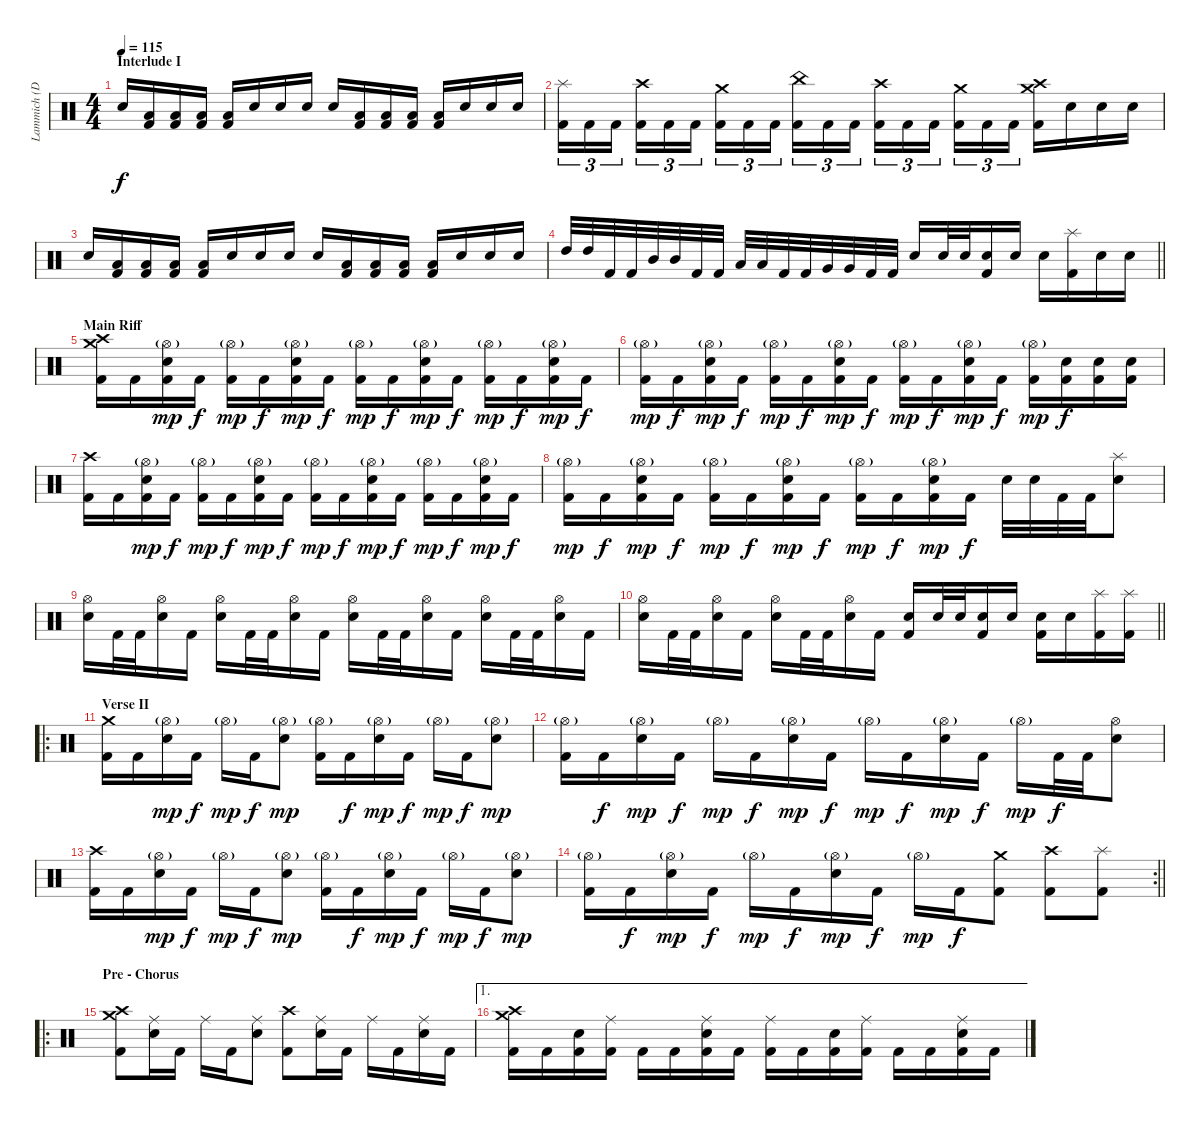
\track ("Lammich (Drums)" "Lammich (D") {instrument percussion}
\staff {score}
\articulation defaults
\ts (4 4)
\section ("" "Interlude I")
\tempo 115
\clef neutral
\ks c "Electric Snare (hit)".16{dy f}
("Low Floor Tom (hit)" "Kick (hit) 2").16 ("Low Floor Tom (hit)" "Kick (hit) 2").16 ("Low Floor Tom (hit)" "Kick (hit) 2").16 ("Low Floor Tom (hit)" "Kick (hit) 2").16 "Electric Snare (hit)".16 "Electric Snare (hit)".16 "Electric Snare (hit)".16 "Electric Snare (hit)".16 ("Low Floor Tom (hit)" "Kick (hit) 2").16 ("Low Floor Tom (hit)" "Kick (hit) 2").16 ("Low Floor Tom (hit)" "Kick (hit) 2").16 ("Low Floor Tom (hit)" "Kick (hit) 2").16 "Electric Snare (hit)".16 "Electric Snare (hit)".16 "Electric Snare (hit)".16 |
("Splash (hit)" "Kick (hit) 2").16{tu (3 2)} "Kick (hit) 2".16{tu (3 2)} "Kick (hit) 2".16{tu (3 2) beam splitsecondary} ("Crash high (hit)" "Kick (hit) 2").16{tu (3 2)} "Kick (hit) 2".16{tu (3 2)} "Kick (hit) 2".16{tu (3 2)} ("Crash medium (hit)" "Kick (hit) 2").16{tu (3 2)} "Kick (hit) 2".16{tu (3 2)} "Kick (hit) 2".16{tu (3 2) beam splitsecondary} ("China (hit)" "Kick (hit) 2").16{tu (3 2)} "Kick (hit) 2".16{tu (3 2)} "Kick (hit) 2".16{tu (3 2)} ("Crash high (hit)" "Kick (hit) 2").16{tu (3 2)} "Kick (hit) 2".16{tu (3 2)} "Kick (hit) 2".16{tu (3 2) beam splitsecondary} ("Crash medium (hit)" "Kick (hit) 2").16{tu (3 2)} "Kick (hit) 2".16{tu (3 2)} "Kick (hit) 2".16{tu (3 2)} ("Crash medium (hit)" "Crash high (hit)" "Kick (hit) 2").16 "Electric Snare (hit)".16 "Electric Snare (hit)".16 "Electric Snare (hit)".16 |
"Electric Snare (hit)".16 ("Low Floor Tom (hit)" "Kick (hit) 2").16 ("Low Floor Tom (hit)" "Kick (hit) 2").16 ("Low Floor Tom (hit)" "Kick (hit) 2").16 ("Low Floor Tom (hit)" "Kick (hit) 2").16 "Electric Snare (hit)".16 "Electric Snare (hit)".16 "Electric Snare (hit)".16 "Electric Snare (hit)".16 ("Low Floor Tom (hit)" "Kick (hit) 2").16 ("Low Floor Tom (hit)" "Kick (hit) 2").16 ("Low Floor Tom (hit)" "Kick (hit) 2").16 ("Low Floor Tom (hit)" "Kick (hit) 2").16 "Electric Snare (hit)".16 "Electric Snare (hit)".16 "Electric Snare (hit)".16 |
\barLineRight lightlight "High Tom (hit)".32 "High Tom (hit)".32 "Kick (hit) 2".32 "Kick (hit) 2".32 "Mid Tom (hit)".32 "Mid Tom (hit)".32 "Kick (hit) 2".32 "Kick (hit) 2".32 "Low Tom (hit)".32 "Low Tom (hit)".32 "Kick (hit) 2".32 "Kick (hit) 2".32 "Very Low Tom (hit)".32 "Very Low Tom (hit)".32 "Kick (hit) 2".32 "Kick (hit) 2".32 "Electric Snare (hit)".16 "Electric Snare (hit)".32 "Electric Snare (hit)".32
("Electric Snare (hit)" "Kick (hit) 2").16 "Electric Snare (hit)".16 "Electric Snare (hit)".16 ("Splash (hit)" "Kick (hit) 2").16 "Electric Snare (hit)".16 "Electric Snare (hit)".16 |
\section ("" "Main Riff")
("Crash medium (hit)" "Crash high (hit)" "Kick (hit) 2").16 "Kick (hit) 2".16 ("Hi-Hat (open)"{g} "Electric Snare (hit)" "Kick (hit) 2").16{dy mp} "Kick (hit) 2".16{dy f} ("Hi-Hat (open)"{g} "Kick (hit) 2").16{dy mp} "Kick (hit) 2".16{dy f} ("Hi-Hat (open)"{g} "Electric Snare (hit)" "Kick (hit) 2").16{dy mp} "Kick (hit) 2".16{dy f} ("Hi-Hat (open)"{g} "Kick (hit) 2").16{dy mp} "Kick (hit) 2".16{dy f} ("Hi-Hat (open)"{g} "Electric Snare (hit)" "Kick (hit) 2").16{dy mp} "Kick (hit) 2".16{dy f} ("Hi-Hat (open)"{g} "Kick (hit) 2").16{dy mp} "Kick (hit) 2".16{dy f} ("Hi-Hat (open)"{g} "Electric Snare (hit)" "Kick (hit) 2").16{dy mp} "Kick (hit) 2".16{dy f} |
("Hi-Hat (open)"{g} "Kick (hit) 2").16{dy mp} "Kick (hit) 2".16{dy f} ("Hi-Hat (open)"{g} "Electric Snare (hit)" "Kick (hit) 2").16{dy mp} "Kick (hit) 2".16{dy f} ("Hi-Hat (open)"{g} "Kick (hit) 2").16{dy mp} "Kick (hit) 2".16{dy f} ("Hi-Hat (open)"{g} "Electric Snare (hit)" "Kick (hit) 2").16{dy mp} "Kick (hit) 2".16{dy f} ("Hi-Hat (open)"{g} "Kick (hit) 2").16{dy mp} "Kick (hit) 2".16{dy f} ("Hi-Hat (open)"{g} "Electric Snare (hit)" "Kick (hit) 2").16{dy mp} "Kick (hit) 2".16{dy f} ("Hi-Hat (open)"{g} "Kick (hit) 2").16{dy mp} ("Electric Snare (hit)" "Kick (hit) 2").16{dy f} ("Electric Snare (hit)" "Kick (hit) 2").16 ("Electric Snare (hit)" "Kick (hit) 2").16 |
("Crash high (hit)" "Kick (hit) 2").16 "Kick (hit) 2".16 ("Hi-Hat (open)"{g} "Electric Snare (hit)" "Kick (hit) 2").16{dy mp} "Kick (hit) 2".16{dy f} ("Hi-Hat (open)"{g} "Kick (hit) 2").16{dy mp} "Kick (hit) 2".16{dy f} ("Hi-Hat (open)"{g} "Electric Snare (hit)" "Kick (hit) 2").16{dy mp} "Kick (hit) 2".16{dy f} ("Hi-Hat (open)"{g} "Kick (hit) 2").16{dy mp} "Kick (hit) 2".16{dy f} ("Hi-Hat (open)"{g} "Electric Snare (hit)" "Kick (hit) 2").16{dy mp} "Kick (hit) 2".16{dy f} ("Hi-Hat (open)"{g} "Kick (hit) 2").16{dy mp} "Kick (hit) 2".16{dy f} ("Hi-Hat (open)"{g} "Electric Snare (hit)" "Kick (hit) 2").16{dy mp} "Kick (hit) 2".16{dy f} |
("Hi-Hat (open)"{g} "Kick (hit) 2").16{dy mp} "Kick (hit) 2".16{dy f} ("Hi-Hat (open)"{g} "Electric Snare (hit)" "Kick (hit) 2").16{dy mp} "Kick (hit) 2".16{dy f} ("Hi-Hat (open)"{g} "Kick (hit) 2").16{dy mp} "Kick (hit) 2".16{dy f} ("Hi-Hat (open)"{g} "Electric Snare (hit)" "Kick (hit) 2").16{dy mp} "Kick (hit) 2".16{dy f} ("Hi-Hat (open)"{g} "Kick (hit) 2").16{dy mp} "Kick (hit) 2".16{dy f} ("Hi-Hat (open)"{g} "Electric Snare (hit)" "Kick (hit) 2").16{dy mp} "Kick (hit) 2".16{dy f} "Electric Snare (hit)".32 "Electric Snare (hit)".32 "Kick (hit) 2".32 "Kick (hit) 2".32 ("Splash (hit)" "Electric Snare (hit)").8 |
("Hi-Hat (open)" "Electric Snare (hit)").16 "Kick (hit) 2".32 "Kick (hit) 2".32 ("Hi-Hat (open)" "Electric Snare (hit)").16 "Kick (hit) 2".16 ("Hi-Hat (open)" "Electric Snare (hit)").16 "Kick (hit) 2".32 "Kick (hit) 2".32 ("Hi-Hat (open)" "Electric Snare (hit)").16 "Kick (hit) 2".16 ("Hi-Hat (open)" "Electric Snare (hit)").16 "Kick (hit) 2".32 "Kick (hit) 2".32 ("Hi-Hat (open)" "Electric Snare (hit)").16 "Kick (hit) 2".16 ("Hi-Hat (open)" "Electric Snare (hit)").16 "Kick (hit) 2".32 "Kick (hit) 2".32 ("Hi-Hat (open)" "Electric Snare (hit)").16 "Kick (hit) 2".16 |
\barLineRight lightlight
("Hi-Hat (open)" "Electric Snare (hit)").16 "Kick (hit) 2".32 "Kick (hit) 2".32 ("Hi-Hat (open)" "Electric Snare (hit)").16 "Kick (hit) 2".16 ("Hi-Hat (open)" "Electric Snare (hit)").16 "Kick (hit) 2".32 "Kick (hit) 2".32 ("Hi-Hat (open)" "Electric Snare (hit)").16 "Kick (hit) 2".16 ("Electric Snare (hit)" "Kick (hit) 2").16 "Electric Snare (hit)".32 "Electric Snare (hit)".32 ("Electric Snare (hit)" "Kick (hit) 2").16 "Electric Snare (hit)".16 ("Electric Snare (hit)" "Kick (hit) 2").16 "Electric Snare (hit)".16 ("Splash (hit)" "Kick (hit) 2").16 ("Splash (hit)" "Kick (hit) 2").16 |
\ro
\section ("" "Verse II")
("Crash medium (hit)" "Kick (hit) 2").16 "Kick (hit) 2".16 ("Hi-Hat (open)"{g} "Electric Snare (hit)").16{dy mp} "Kick (hit) 2".16{dy f} "Hi-Hat (open)"{g}.16{dy mp} "Kick (hit) 2".16{dy f} ("Hi-Hat (open)"{g} "Electric Snare (hit)").8{dy mp} ("Hi-Hat (open)"{g} "Kick (hit) 2").16 "Kick (hit) 2".16{dy f} ("Hi-Hat (open)"{g} "Electric Snare (hit)").16{dy mp} "Kick (hit) 2".16{dy f} "Hi-Hat (open)"{g}.16{dy mp} "Kick (hit) 2".16{dy f} ("Hi-Hat (open)"{g} "Electric Snare (hit)").8{dy mp} |
("Hi-Hat (open)"{g} "Kick (hit) 2").16 "Kick (hit) 2".16{dy f} ("Hi-Hat (open)"{g} "Electric Snare (hit)").16{dy mp} "Kick (hit) 2".16{dy f} "Hi-Hat (open)"{g}.16{dy mp} "Kick (hit) 2".16{dy f} ("Hi-Hat (open)"{g} "Electric Snare (hit)").16{dy mp} "Kick (hit) 2".16{dy f} "Hi-Hat (open)"{g}.16{dy mp} "Kick (hit) 2".16{dy f} ("Hi-Hat (open)"{g} "Electric Snare (hit)").16{dy mp} "Kick (hit) 2".16{dy f} "Hi-Hat (open)"{g}.16{dy mp} "Kick (hit) 2".32{dy f} "Kick (hit) 2".32 ("Hi-Hat (open)" "Electric Snare (hit)").8 |
("Crash high (hit)" "Kick (hit) 2").16 "Kick (hit) 2".16 ("Hi-Hat (open)"{g} "Electric Snare (hit)").16{dy mp} "Kick (hit) 2".16{dy f} "Hi-Hat (open)"{g}.16{dy mp} "Kick (hit) 2".16{dy f} ("Hi-Hat (open)"{g} "Electric Snare (hit)").8{dy mp} ("Hi-Hat (open)"{g} "Kick (hit) 2").16 "Kick (hit) 2".16{dy f} ("Hi-Hat (open)"{g} "Electric Snare (hit)").16{dy mp} "Kick (hit) 2".16{dy f} "Hi-Hat (open)"{g}.16{dy mp} "Kick (hit) 2".16{dy f} ("Hi-Hat (open)"{g} "Electric Snare (hit)").8{dy mp} |
\rc 2
\barLineRight lightlight
("Hi-Hat (open)"{g} "Kick (hit) 2").16 "Kick (hit) 2".16{dy f} ("Hi-Hat (open)"{g} "Electric Snare (hit)").16{dy mp} "Kick (hit) 2".16{dy f} "Hi-Hat (open)"{g}.16{dy mp} "Kick (hit) 2".16{dy f} ("Hi-Hat (open)"{g} "Electric Snare (hit)").16{dy mp} "Kick (hit) 2".16{dy f} "Hi-Hat (open)"{g}.16{dy mp} "Kick (hit) 2".16{dy f} ("Crash medium (hit)" "Kick (hit) 2").8 ("Crash high (hit)" "Kick (hit) 2").8 ("Splash (hit)" "Kick (hit) 2").8 |
\ro
\section ("" "Pre - Chorus")
("Crash medium (hit)" "Crash high (hit)" "Kick (hit) 2").8 ("Ride (middle)" "Electric Snare (hit)").16 "Kick (hit) 2".16 "Ride (middle)".16 "Kick (hit) 2".16 ("Ride (middle)" "Electric Snare (hit)").8 ("Crash high (hit)" "Kick (hit) 2").8 ("Ride (middle)" "Electric Snare (hit)").16 "Kick (hit) 2".16 "Ride (middle)".16 "Kick (hit) 2".16 ("Ride (middle)" "Electric Snare (hit)").16 "Kick (hit) 2".16 |
\ae 1
("Crash medium (hit)" "Crash high (hit)" "Kick (hit) 2").16 "Kick (hit) 2".16 ("Electric Snare (hit)" "Kick (hit) 2").16 ("Ride (middle)" "Kick (hit) 2").16 "Kick (hit) 2".16 "Kick (hit) 2".16 ("Ride (middle)" "Electric Snare (hit)" "Kick (hit) 2").16 "Kick (hit) 2".16 ("Ride (middle)" "Kick (hit) 2").16 "Kick (hit) 2".16 ("Electric Snare (hit)" "Kick (hit) 2").16 ("Ride (middle)" "Kick (hit) 2").16 "Kick (hit) 2".16 "Kick (hit) 2".16 ("Ride (middle)" "Electric Snare (hit)" "Kick (hit) 2").16 "Kick (hit) 2".16
